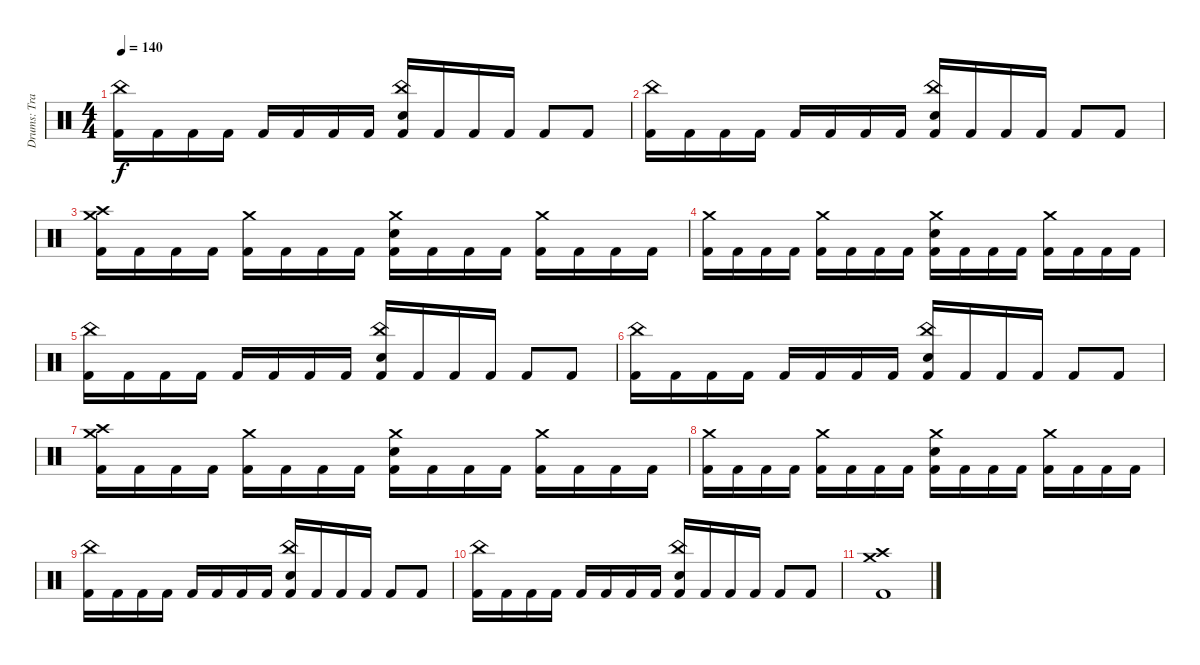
\track ("Drums: Travis Clarke" "Drums: Tra") {instrument percussion}
\staff {score}
\articulation defaults
\ts (4 4)
\tempo 140
\clef neutral
\ks c
("Kick (hit) 2" "China (hit)").16{dy f} "Kick (hit) 2".16 "Kick (hit) 2".16 "Kick (hit) 2".16 "Kick (hit) 2".16 "Kick (hit) 2".16 "Kick (hit) 2".16 "Kick (hit) 2".16 ("Kick (hit) 2" "Snare (hit) 2" "China (hit)").16 "Kick (hit) 2".16 "Kick (hit) 2".16 "Kick (hit) 2".16 "Kick (hit) 2".8 "Kick (hit) 2".8 |
("Kick (hit) 2" "China (hit)").16 "Kick (hit) 2".16 "Kick (hit) 2".16 "Kick (hit) 2".16 "Kick (hit) 2".16 "Kick (hit) 2".16 "Kick (hit) 2".16 "Kick (hit) 2".16 ("Kick (hit) 2" "Snare (hit) 2" "China (hit)").16 "Kick (hit) 2".16 "Kick (hit) 2".16 "Kick (hit) 2".16 "Kick (hit) 2".8 "Kick (hit) 2".8 |
("Kick (hit) 2" "Crash high (hit)" "Crash medium (hit)").16 "Kick (hit) 2".16 "Kick (hit) 2".16 "Kick (hit) 2".16 ("Kick (hit) 2" "Crash medium (hit)").16 "Kick (hit) 2".16 "Kick (hit) 2".16 "Kick (hit) 2".16 ("Kick (hit) 2" "Snare (hit) 2" "Crash medium (hit)").16 "Kick (hit) 2".16 "Kick (hit) 2".16 "Kick (hit) 2".16 ("Kick (hit) 2" "Crash medium (hit)").16 "Kick (hit) 2".16 "Kick (hit) 2".16 "Kick (hit) 2".16 |
("Kick (hit) 2" "Crash medium (hit)").16 "Kick (hit) 2".16 "Kick (hit) 2".16 "Kick (hit) 2".16 ("Kick (hit) 2" "Crash medium (hit)").16 "Kick (hit) 2".16 "Kick (hit) 2".16 "Kick (hit) 2".16 ("Kick (hit) 2" "Snare (hit) 2" "Crash medium (hit)").16 "Kick (hit) 2".16 "Kick (hit) 2".16 "Kick (hit) 2".16 ("Kick (hit) 2" "Crash medium (hit)").16 "Kick (hit) 2".16 "Kick (hit) 2".16 "Kick (hit) 2".16 |
("Kick (hit) 2" "China (hit)").16 "Kick (hit) 2".16 "Kick (hit) 2".16 "Kick (hit) 2".16 "Kick (hit) 2".16 "Kick (hit) 2".16 "Kick (hit) 2".16 "Kick (hit) 2".16 ("Kick (hit) 2" "Snare (hit) 2" "China (hit)").16 "Kick (hit) 2".16 "Kick (hit) 2".16 "Kick (hit) 2".16 "Kick (hit) 2".8 "Kick (hit) 2".8 |
("Kick (hit) 2" "China (hit)").16 "Kick (hit) 2".16 "Kick (hit) 2".16 "Kick (hit) 2".16 "Kick (hit) 2".16 "Kick (hit) 2".16 "Kick (hit) 2".16 "Kick (hit) 2".16 ("Kick (hit) 2" "Snare (hit) 2" "China (hit)").16 "Kick (hit) 2".16 "Kick (hit) 2".16 "Kick (hit) 2".16 "Kick (hit) 2".8 "Kick (hit) 2".8 |
("Kick (hit) 2" "Crash high (hit)" "Crash medium (hit)").16 "Kick (hit) 2".16 "Kick (hit) 2".16 "Kick (hit) 2".16 ("Kick (hit) 2" "Crash medium (hit)").16 "Kick (hit) 2".16 "Kick (hit) 2".16 "Kick (hit) 2".16 ("Kick (hit) 2" "Snare (hit) 2" "Crash medium (hit)").16 "Kick (hit) 2".16 "Kick (hit) 2".16 "Kick (hit) 2".16 ("Kick (hit) 2" "Crash medium (hit)").16 "Kick (hit) 2".16 "Kick (hit) 2".16 "Kick (hit) 2".16 |
("Kick (hit) 2" "Crash medium (hit)").16 "Kick (hit) 2".16 "Kick (hit) 2".16 "Kick (hit) 2".16 ("Kick (hit) 2" "Crash medium (hit)").16 "Kick (hit) 2".16 "Kick (hit) 2".16 "Kick (hit) 2".16 ("Kick (hit) 2" "Snare (hit) 2" "Crash medium (hit)").16 "Kick (hit) 2".16 "Kick (hit) 2".16 "Kick (hit) 2".16 ("Kick (hit) 2" "Crash medium (hit)").16 "Kick (hit) 2".16 "Kick (hit) 2".16 "Kick (hit) 2".16 |
("Kick (hit) 2" "China (hit)").16 "Kick (hit) 2".16 "Kick (hit) 2".16 "Kick (hit) 2".16 "Kick (hit) 2".16 "Kick (hit) 2".16 "Kick (hit) 2".16 "Kick (hit) 2".16 ("Kick (hit) 2" "Snare (hit) 2" "China (hit)").16 "Kick (hit) 2".16 "Kick (hit) 2".16 "Kick (hit) 2".16 "Kick (hit) 2".8 "Kick (hit) 2".8 |
("Kick (hit) 2" "China (hit)").16 "Kick (hit) 2".16 "Kick (hit) 2".16 "Kick (hit) 2".16 "Kick (hit) 2".16 "Kick (hit) 2".16 "Kick (hit) 2".16 "Kick (hit) 2".16 ("Kick (hit) 2" "Snare (hit) 2" "China (hit)").16 "Kick (hit) 2".16 "Kick (hit) 2".16 "Kick (hit) 2".16 "Kick (hit) 2".8 "Kick (hit) 2".8 |
("Kick (hit) 2" "Crash high (hit)" "Crash medium (hit)").1
